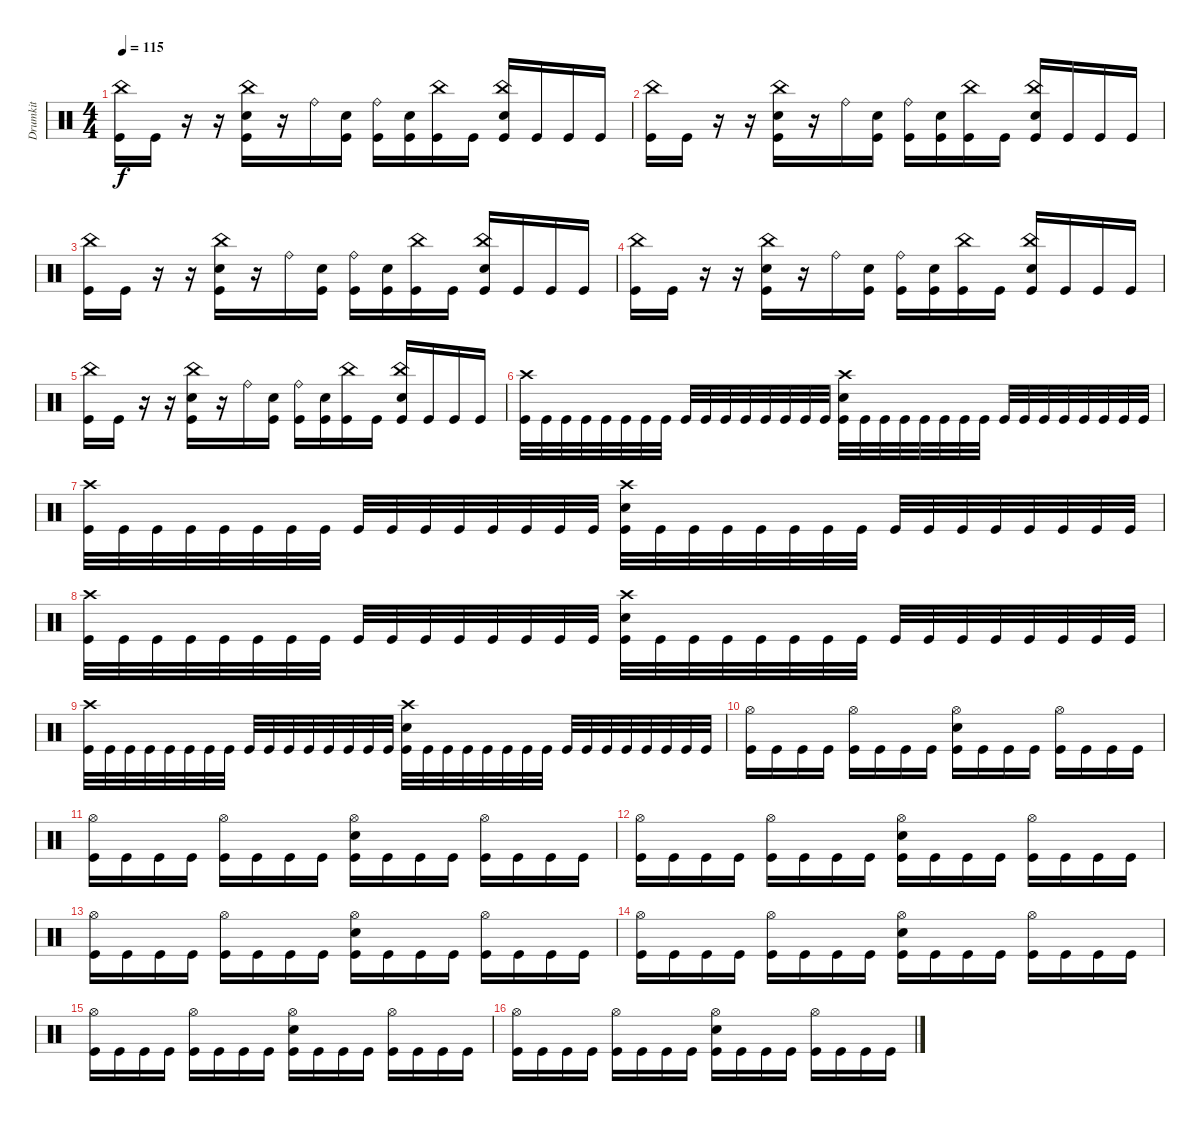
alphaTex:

\track ("Drumkit" "Drumkit") {instrument percussion}
\staff {score}
\articulation defaults
\ts (4 4)
\tempo 115
\clef neutral
\ks c
("Kick (hit)" "China (hit)").16{dy f} "Kick (hit)".16 r.16 r.16 ("Kick (hit)" "Snare (hit) 2" "China (hit)").16 r.16 "Ride (bell)".16 ("Kick (hit)" "Snare (hit) 2").16 ("Kick (hit)" "Ride (bell)").16 ("Kick (hit)" "Snare (hit) 2").16 ("Kick (hit)" "China (hit)").16 "Kick (hit)".16 ("Kick (hit)" "Snare (hit) 2" "China (hit)").16 "Kick (hit)".16 "Kick (hit)".16 "Kick (hit)".16 |
("Kick (hit)" "China (hit)").16 "Kick (hit)".16 r.16 r.16 ("Kick (hit)" "Snare (hit) 2" "China (hit)").16 r.16 "Ride (bell)".16 ("Kick (hit)" "Snare (hit) 2").16 ("Kick (hit)" "Ride (bell)").16 ("Kick (hit)" "Snare (hit) 2").16 ("Kick (hit)" "China (hit)").16 "Kick (hit)".16 ("Kick (hit)" "Snare (hit) 2" "China (hit)").16 "Kick (hit)".16 "Kick (hit)".16 "Kick (hit)".16 |
("Kick (hit)" "China (hit)").16 "Kick (hit)".16 r.16 r.16 ("Kick (hit)" "Snare (hit) 2" "China (hit)").16 r.16 "Ride (bell)".16 ("Kick (hit)" "Snare (hit) 2").16 ("Kick (hit)" "Ride (bell)").16 ("Kick (hit)" "Snare (hit) 2").16 ("Kick (hit)" "China (hit)").16 "Kick (hit)".16 ("Kick (hit)" "Snare (hit) 2" "China (hit)").16 "Kick (hit)".16 "Kick (hit)".16 "Kick (hit)".16 |
("Kick (hit)" "China (hit)").16 "Kick (hit)".16 r.16 r.16 ("Kick (hit)" "Snare (hit) 2" "China (hit)").16 r.16 "Ride (bell)".16 ("Kick (hit)" "Snare (hit) 2").16 ("Kick (hit)" "Ride (bell)").16 ("Kick (hit)" "Snare (hit) 2").16 ("Kick (hit)" "China (hit)").16 "Kick (hit)".16 ("Kick (hit)" "Snare (hit) 2" "China (hit)").16 "Kick (hit)".16 "Kick (hit)".16 "Kick (hit)".16 |
("Kick (hit)" "China (hit)").16 "Kick (hit)".16 r.16 r.16 ("Kick (hit)" "Snare (hit) 2" "China (hit)").16 r.16 "Ride (bell)".16 ("Kick (hit)" "Snare (hit) 2").16 ("Kick (hit)" "Ride (bell)").16 ("Kick (hit)" "Snare (hit) 2").16 ("Kick (hit)" "China (hit)").16 "Kick (hit)".16 ("Kick (hit)" "Snare (hit) 2" "China (hit)").16 "Kick (hit)".16 "Kick (hit)".16 "Kick (hit)".16 |
("Kick (hit)" "Crash high (hit)").32 "Kick (hit)".32 "Kick (hit)".32 "Kick (hit)".32 "Kick (hit)".32 "Kick (hit)".32 "Kick (hit)".32 "Kick (hit)".32 "Kick (hit)".32 "Kick (hit)".32 "Kick (hit)".32 "Kick (hit)".32 "Kick (hit)".32 "Kick (hit)".32 "Kick (hit)".32 "Kick (hit)".32 ("Kick (hit)" "Snare (hit) 2" "Crash high (hit)").32 "Kick (hit)".32 "Kick (hit)".32 "Kick (hit)".32 "Kick (hit)".32 "Kick (hit)".32 "Kick (hit)".32 "Kick (hit)".32 "Kick (hit)".32 "Kick (hit)".32 "Kick (hit)".32 "Kick (hit)".32 "Kick (hit)".32 "Kick (hit)".32 "Kick (hit)".32 "Kick (hit)".32 |
("Kick (hit)" "Crash high (hit)").32 "Kick (hit)".32 "Kick (hit)".32 "Kick (hit)".32 "Kick (hit)".32 "Kick (hit)".32 "Kick (hit)".32 "Kick (hit)".32 "Kick (hit)".32 "Kick (hit)".32 "Kick (hit)".32 "Kick (hit)".32 "Kick (hit)".32 "Kick (hit)".32 "Kick (hit)".32 "Kick (hit)".32 ("Kick (hit)" "Snare (hit) 2" "Crash high (hit)").32 "Kick (hit)".32 "Kick (hit)".32 "Kick (hit)".32 "Kick (hit)".32 "Kick (hit)".32 "Kick (hit)".32 "Kick (hit)".32 "Kick (hit)".32 "Kick (hit)".32 "Kick (hit)".32 "Kick (hit)".32 "Kick (hit)".32 "Kick (hit)".32 "Kick (hit)".32 "Kick (hit)".32 |
("Kick (hit)" "Crash high (hit)").32 "Kick (hit)".32 "Kick (hit)".32 "Kick (hit)".32 "Kick (hit)".32 "Kick (hit)".32 "Kick (hit)".32 "Kick (hit)".32 "Kick (hit)".32 "Kick (hit)".32 "Kick (hit)".32 "Kick (hit)".32 "Kick (hit)".32 "Kick (hit)".32 "Kick (hit)".32 "Kick (hit)".32 ("Kick (hit)" "Snare (hit) 2" "Crash high (hit)").32 "Kick (hit)".32 "Kick (hit)".32 "Kick (hit)".32 "Kick (hit)".32 "Kick (hit)".32 "Kick (hit)".32 "Kick (hit)".32 "Kick (hit)".32 "Kick (hit)".32 "Kick (hit)".32 "Kick (hit)".32 "Kick (hit)".32 "Kick (hit)".32 "Kick (hit)".32 "Kick (hit)".32 |
("Kick (hit)" "Crash high (hit)").32 "Kick (hit)".32 "Kick (hit)".32 "Kick (hit)".32 "Kick (hit)".32 "Kick (hit)".32 "Kick (hit)".32 "Kick (hit)".32 "Kick (hit)".32 "Kick (hit)".32 "Kick (hit)".32 "Kick (hit)".32 "Kick (hit)".32 "Kick (hit)".32 "Kick (hit)".32 "Kick (hit)".32 ("Kick (hit)" "Snare (hit) 2" "Crash high (hit)").32 "Kick (hit)".32 "Kick (hit)".32 "Kick (hit)".32 "Kick (hit)".32 "Kick (hit)".32 "Kick (hit)".32 "Kick (hit)".32 "Kick (hit)".32 "Kick (hit)".32 "Kick (hit)".32 "Kick (hit)".32 "Kick (hit)".32 "Kick (hit)".32 "Kick (hit)".32 "Kick (hit)".32 |
("Kick (hit)" "Hi-Hat (open)").16 "Kick (hit)".16 "Kick (hit)".16 "Kick (hit)".16 ("Kick (hit)" "Hi-Hat (open)").16 "Kick (hit)".16 "Kick (hit)".16 "Kick (hit)".16 ("Kick (hit)" "Snare (hit) 2" "Hi-Hat (open)").16 "Kick (hit)".16 "Kick (hit)".16 "Kick (hit)".16 ("Kick (hit)" "Hi-Hat (open)").16 "Kick (hit)".16 "Kick (hit)".16 "Kick (hit)".16 |
("Kick (hit)" "Hi-Hat (open)").16 "Kick (hit)".16 "Kick (hit)".16 "Kick (hit)".16 ("Kick (hit)" "Hi-Hat (open)").16 "Kick (hit)".16 "Kick (hit)".16 "Kick (hit)".16 ("Kick (hit)" "Snare (hit) 2" "Hi-Hat (open)").16 "Kick (hit)".16 "Kick (hit)".16 "Kick (hit)".16 ("Kick (hit)" "Hi-Hat (open)").16 "Kick (hit)".16 "Kick (hit)".16 "Kick (hit)".16 |
("Kick (hit)" "Hi-Hat (open)").16 "Kick (hit)".16 "Kick (hit)".16 "Kick (hit)".16 ("Kick (hit)" "Hi-Hat (open)").16 "Kick (hit)".16 "Kick (hit)".16 "Kick (hit)".16 ("Kick (hit)" "Snare (hit) 2" "Hi-Hat (open)").16 "Kick (hit)".16 "Kick (hit)".16 "Kick (hit)".16 ("Kick (hit)" "Hi-Hat (open)").16 "Kick (hit)".16 "Kick (hit)".16 "Kick (hit)".16 |
("Kick (hit)" "Hi-Hat (open)").16 "Kick (hit)".16 "Kick (hit)".16 "Kick (hit)".16 ("Kick (hit)" "Hi-Hat (open)").16 "Kick (hit)".16 "Kick (hit)".16 "Kick (hit)".16 ("Kick (hit)" "Snare (hit) 2" "Hi-Hat (open)").16 "Kick (hit)".16 "Kick (hit)".16 "Kick (hit)".16 ("Kick (hit)" "Hi-Hat (open)").16 "Kick (hit)".16 "Kick (hit)".16 "Kick (hit)".16 |
("Kick (hit)" "Hi-Hat (open)").16 "Kick (hit)".16 "Kick (hit)".16 "Kick (hit)".16 ("Kick (hit)" "Hi-Hat (open)").16 "Kick (hit)".16 "Kick (hit)".16 "Kick (hit)".16 ("Kick (hit)" "Snare (hit) 2" "Hi-Hat (open)").16 "Kick (hit)".16 "Kick (hit)".16 "Kick (hit)".16 ("Kick (hit)" "Hi-Hat (open)").16 "Kick (hit)".16 "Kick (hit)".16 "Kick (hit)".16 |
("Kick (hit)" "Hi-Hat (open)").16 "Kick (hit)".16 "Kick (hit)".16 "Kick (hit)".16 ("Kick (hit)" "Hi-Hat (open)").16 "Kick (hit)".16 "Kick (hit)".16 "Kick (hit)".16 ("Kick (hit)" "Snare (hit) 2" "Hi-Hat (open)").16 "Kick (hit)".16 "Kick (hit)".16 "Kick (hit)".16 ("Kick (hit)" "Hi-Hat (open)").16 "Kick (hit)".16 "Kick (hit)".16 "Kick (hit)".16 |
("Kick (hit)" "Hi-Hat (open)").16 "Kick (hit)".16 "Kick (hit)".16 "Kick (hit)".16 ("Kick (hit)" "Hi-Hat (open)").16 "Kick (hit)".16 "Kick (hit)".16 "Kick (hit)".16 ("Kick (hit)" "Snare (hit) 2" "Hi-Hat (open)").16 "Kick (hit)".16 "Kick (hit)".16 "Kick (hit)".16 ("Kick (hit)" "Hi-Hat (open)").16 "Kick (hit)".16 "Kick (hit)".16 "Kick (hit)".16
